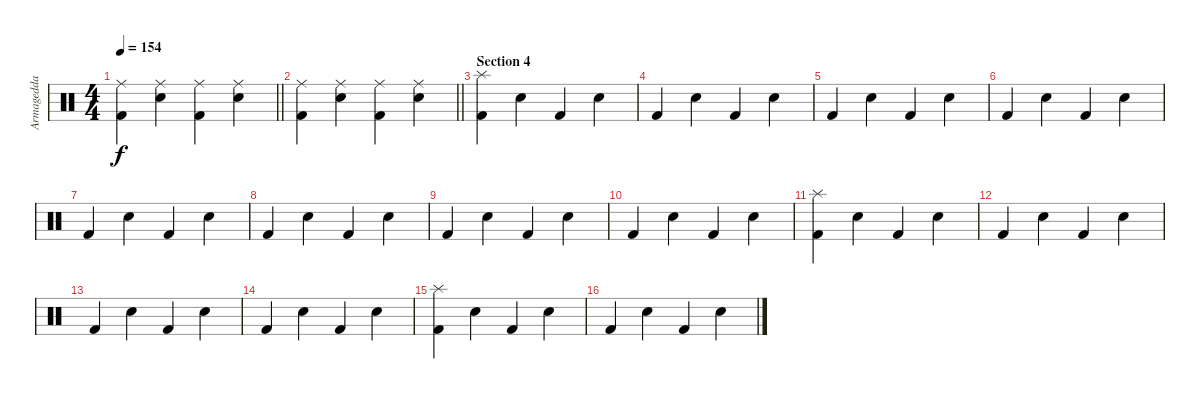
\track ("Armagedda" "Armagedda") {instrument percussion}
\staff {score}
\articulation defaults
\ts (4 4)
\tempo 154
\clef neutral
\barLineRight lightlight
\ks c
("Ride (middle)" "Kick (hit) 2").4{dy f} ("Ride (middle)" "Snare (hit) 2").4 ("Ride (middle)" "Kick (hit) 2").4 ("Ride (middle)" "Snare (hit) 2").4 |
\barLineRight lightlight
("Ride (middle)" "Kick (hit) 2").4 ("Ride (middle)" "Snare (hit) 2").4 ("Ride (middle)" "Kick (hit) 2").4 ("Ride (middle)" "Snare (hit) 2").4 |
\section ("" "Section 4")
("Splash (hit)" "Kick (hit) 2").4 "Snare (hit) 2".4 "Kick (hit) 2".4 "Snare (hit) 2".4 |
"Kick (hit) 2".4 "Snare (hit) 2".4 "Kick (hit) 2".4 "Snare (hit) 2".4 |
"Kick (hit) 2".4 "Snare (hit) 2".4 "Kick (hit) 2".4 "Snare (hit) 2".4 |
"Kick (hit) 2".4 "Snare (hit) 2".4 "Kick (hit) 2".4 "Snare (hit) 2".4 |
"Kick (hit) 2".4 "Snare (hit) 2".4 "Kick (hit) 2".4 "Snare (hit) 2".4 |
"Kick (hit) 2".4 "Snare (hit) 2".4 "Kick (hit) 2".4 "Snare (hit) 2".4 |
"Kick (hit) 2".4 "Snare (hit) 2".4 "Kick (hit) 2".4 "Snare (hit) 2".4 |
"Kick (hit) 2".4 "Snare (hit) 2".4 "Kick (hit) 2".4 "Snare (hit) 2".4 |
("Splash (hit)" "Kick (hit) 2").4 "Snare (hit) 2".4 "Kick (hit) 2".4 "Snare (hit) 2".4 |
"Kick (hit) 2".4 "Snare (hit) 2".4 "Kick (hit) 2".4 "Snare (hit) 2".4 |
"Kick (hit) 2".4 "Snare (hit) 2".4 "Kick (hit) 2".4 "Snare (hit) 2".4 |
"Kick (hit) 2".4 "Snare (hit) 2".4 "Kick (hit) 2".4 "Snare (hit) 2".4 |
("Splash (hit)" "Kick (hit) 2").4 "Snare (hit) 2".4 "Kick (hit) 2".4 "Snare (hit) 2".4 |
"Kick (hit) 2".4 "Snare (hit) 2".4 "Kick (hit) 2".4 "Snare (hit) 2".4
